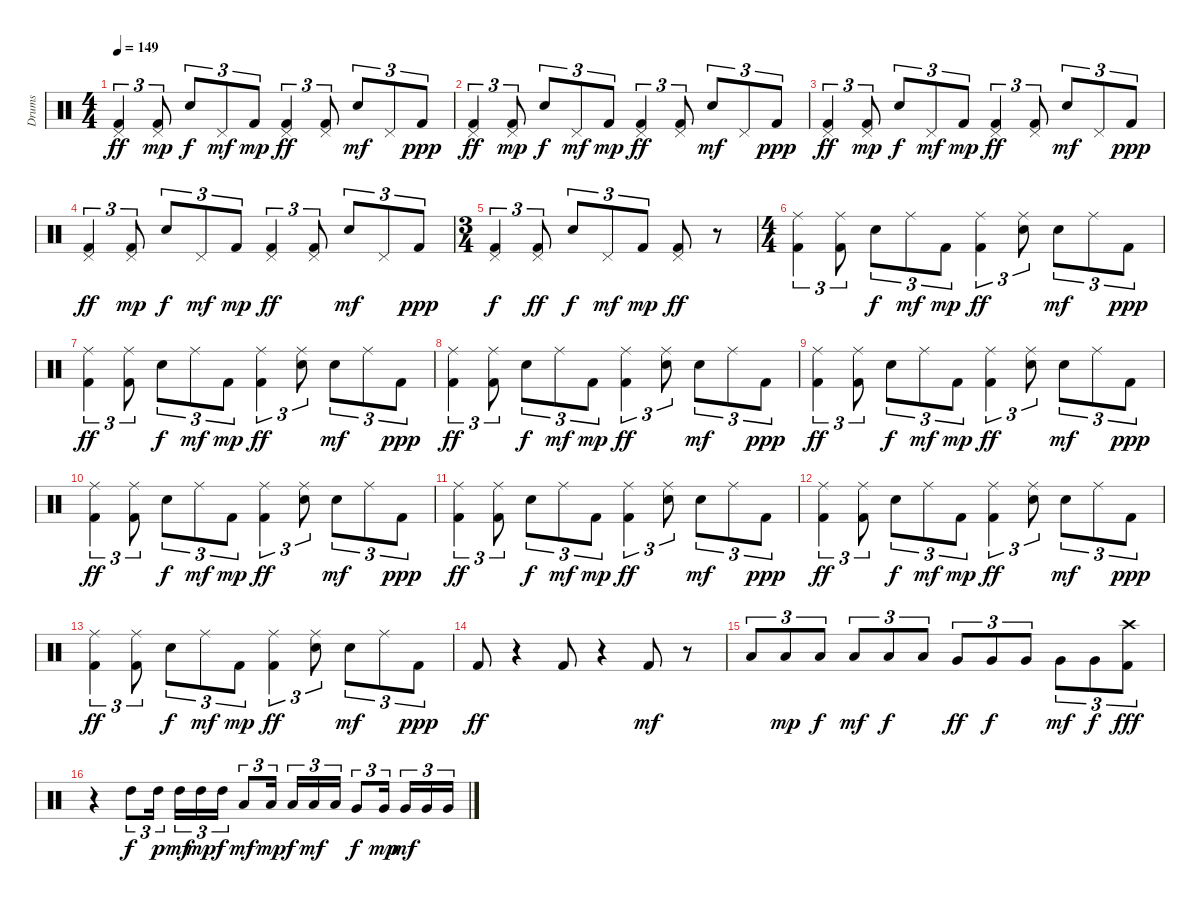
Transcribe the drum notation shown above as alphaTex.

\track ("Drums" "Drums") {instrument percussion}
\staff {score}
\articulation defaults
\ts (4 4)
\tempo 149
\clef neutral
\ks c
("Kick (hit) 2" "Pedal Hi-Hat (hit)").4{tu (3 2) dy ff} ("Kick (hit) 2" "Pedal Hi-Hat (hit)").8{tu (3 2) dy mp} "Snare (hit) 2".8{tu (3 2) dy f} "Pedal Hi-Hat (hit)".8{tu (3 2) dy mf} "Kick (hit) 2".8{tu (3 2) dy mp} ("Kick (hit) 2" "Pedal Hi-Hat (hit)").4{tu (3 2) dy ff} ("Kick (hit) 2" "Pedal Hi-Hat (hit)").8{tu (3 2)} "Snare (hit) 2".8{tu (3 2) dy mf} "Pedal Hi-Hat (hit)".8{tu (3 2)} "Kick (hit) 2".8{tu (3 2) dy ppp} |
("Kick (hit) 2" "Pedal Hi-Hat (hit)").4{tu (3 2) dy ff} ("Kick (hit) 2" "Pedal Hi-Hat (hit)").8{tu (3 2) dy mp} "Snare (hit) 2".8{tu (3 2) dy f} "Pedal Hi-Hat (hit)".8{tu (3 2) dy mf} "Kick (hit) 2".8{tu (3 2) dy mp} ("Kick (hit) 2" "Pedal Hi-Hat (hit)").4{tu (3 2) dy ff} ("Kick (hit) 2" "Pedal Hi-Hat (hit)").8{tu (3 2)} "Snare (hit) 2".8{tu (3 2) dy mf} "Pedal Hi-Hat (hit)".8{tu (3 2)} "Kick (hit) 2".8{tu (3 2) dy ppp} |
("Kick (hit) 2" "Pedal Hi-Hat (hit)").4{tu (3 2) dy ff} ("Kick (hit) 2" "Pedal Hi-Hat (hit)").8{tu (3 2) dy mp} "Snare (hit) 2".8{tu (3 2) dy f} "Pedal Hi-Hat (hit)".8{tu (3 2) dy mf} "Kick (hit) 2".8{tu (3 2) dy mp} ("Kick (hit) 2" "Pedal Hi-Hat (hit)").4{tu (3 2) dy ff} ("Kick (hit) 2" "Pedal Hi-Hat (hit)").8{tu (3 2)} "Snare (hit) 2".8{tu (3 2) dy mf} "Pedal Hi-Hat (hit)".8{tu (3 2)} "Kick (hit) 2".8{tu (3 2) dy ppp} |
("Kick (hit) 2" "Pedal Hi-Hat (hit)").4{tu (3 2) dy ff} ("Kick (hit) 2" "Pedal Hi-Hat (hit)").8{tu (3 2) dy mp} "Snare (hit) 2".8{tu (3 2) dy f} "Pedal Hi-Hat (hit)".8{tu (3 2) dy mf} "Kick (hit) 2".8{tu (3 2) dy mp} ("Kick (hit) 2" "Pedal Hi-Hat (hit)").4{tu (3 2) dy ff} ("Kick (hit) 2" "Pedal Hi-Hat (hit)").8{tu (3 2)} "Snare (hit) 2".8{tu (3 2) dy mf} "Pedal Hi-Hat (hit)".8{tu (3 2)} "Kick (hit) 2".8{tu (3 2) dy ppp} |
\ts (3 4)
("Kick (hit) 2" "Pedal Hi-Hat (hit)").4{tu (3 2) dy f} ("Kick (hit) 2" "Pedal Hi-Hat (hit)").8{tu (3 2) dy ff} "Snare (hit) 2".8{tu (3 2) dy f} "Pedal Hi-Hat (hit)".8{tu (3 2) dy mf} "Kick (hit) 2".8{tu (3 2) dy mp} ("Kick (hit) 2" "Pedal Hi-Hat (hit)").8{dy ff} r.8 |
\ts (4 4)
("Kick (hit) 2" "Ride (middle)").4{tu (3 2)} ("Kick (hit) 2" "Ride (middle)").8{tu (3 2)} "Snare (hit) 2".8{tu (3 2) dy f} "Ride (middle)".8{tu (3 2) dy mf} "Kick (hit) 2".8{tu (3 2) dy mp} ("Kick (hit) 2" "Ride (middle)").4{tu (3 2) dy ff} ("Snare (hit) 2" "Ride (middle)").8{tu (3 2)} "Snare (hit) 2".8{tu (3 2) dy mf} "Ride (middle)".8{tu (3 2)} "Kick (hit) 2".8{tu (3 2) dy ppp} |
("Kick (hit) 2" "Ride (middle)").4{tu (3 2) dy ff} ("Kick (hit) 2" "Ride (middle)").8{tu (3 2)} "Snare (hit) 2".8{tu (3 2) dy f} "Ride (middle)".8{tu (3 2) dy mf} "Kick (hit) 2".8{tu (3 2) dy mp} ("Kick (hit) 2" "Ride (middle)").4{tu (3 2) dy ff} ("Snare (hit) 2" "Ride (middle)").8{tu (3 2)} "Snare (hit) 2".8{tu (3 2) dy mf} "Ride (middle)".8{tu (3 2)} "Kick (hit) 2".8{tu (3 2) dy ppp} |
("Kick (hit) 2" "Ride (middle)").4{tu (3 2) dy ff} ("Kick (hit) 2" "Ride (middle)").8{tu (3 2)} "Snare (hit) 2".8{tu (3 2) dy f} "Ride (middle)".8{tu (3 2) dy mf} "Kick (hit) 2".8{tu (3 2) dy mp} ("Kick (hit) 2" "Ride (middle)").4{tu (3 2) dy ff} ("Snare (hit) 2" "Ride (middle)").8{tu (3 2)} "Snare (hit) 2".8{tu (3 2) dy mf} "Ride (middle)".8{tu (3 2)} "Kick (hit) 2".8{tu (3 2) dy ppp} |
("Kick (hit) 2" "Ride (middle)").4{tu (3 2) dy ff} ("Kick (hit) 2" "Ride (middle)").8{tu (3 2)} "Snare (hit) 2".8{tu (3 2) dy f} "Ride (middle)".8{tu (3 2) dy mf} "Kick (hit) 2".8{tu (3 2) dy mp} ("Kick (hit) 2" "Ride (middle)").4{tu (3 2) dy ff} ("Snare (hit) 2" "Ride (middle)").8{tu (3 2)} "Snare (hit) 2".8{tu (3 2) dy mf} "Ride (middle)".8{tu (3 2)} "Kick (hit) 2".8{tu (3 2) dy ppp} |
("Kick (hit) 2" "Ride (middle)").4{tu (3 2) dy ff} ("Kick (hit) 2" "Ride (middle)").8{tu (3 2)} "Snare (hit) 2".8{tu (3 2) dy f} "Ride (middle)".8{tu (3 2) dy mf} "Kick (hit) 2".8{tu (3 2) dy mp} ("Kick (hit) 2" "Ride (middle)").4{tu (3 2) dy ff} ("Snare (hit) 2" "Ride (middle)").8{tu (3 2)} "Snare (hit) 2".8{tu (3 2) dy mf} "Ride (middle)".8{tu (3 2)} "Kick (hit) 2".8{tu (3 2) dy ppp} |
("Kick (hit) 2" "Ride (middle)").4{tu (3 2) dy ff} ("Kick (hit) 2" "Ride (middle)").8{tu (3 2)} "Snare (hit) 2".8{tu (3 2) dy f} "Ride (middle)".8{tu (3 2) dy mf} "Kick (hit) 2".8{tu (3 2) dy mp} ("Kick (hit) 2" "Ride (middle)").4{tu (3 2) dy ff} ("Snare (hit) 2" "Ride (middle)").8{tu (3 2)} "Snare (hit) 2".8{tu (3 2) dy mf} "Ride (middle)".8{tu (3 2)} "Kick (hit) 2".8{tu (3 2) dy ppp} |
("Kick (hit) 2" "Ride (middle)").4{tu (3 2) dy ff} ("Kick (hit) 2" "Ride (middle)").8{tu (3 2)} "Snare (hit) 2".8{tu (3 2) dy f} "Ride (middle)".8{tu (3 2) dy mf} "Kick (hit) 2".8{tu (3 2) dy mp} ("Kick (hit) 2" "Ride (middle)").4{tu (3 2) dy ff} ("Snare (hit) 2" "Ride (middle)").8{tu (3 2)} "Snare (hit) 2".8{tu (3 2) dy mf} "Ride (middle)".8{tu (3 2)} "Kick (hit) 2".8{tu (3 2) dy ppp} |
("Kick (hit) 2" "Ride (middle)").4{tu (3 2) dy ff} ("Kick (hit) 2" "Ride (middle)").8{tu (3 2)} "Snare (hit) 2".8{tu (3 2) dy f} "Ride (middle)".8{tu (3 2) dy mf} "Kick (hit) 2".8{tu (3 2) dy mp} ("Kick (hit) 2" "Ride (middle)").4{tu (3 2) dy ff} ("Snare (hit) 2" "Ride (middle)").8{tu (3 2)} "Snare (hit) 2".8{tu (3 2) dy mf} "Ride (middle)".8{tu (3 2)} "Kick (hit) 2".8{tu (3 2) dy ppp} |
"Kick (hit) 2".8{dy ff} r.4 "Kick (hit) 2".8 r.4 "Kick (hit) 2".8{dy mf} r.8 |
"Low Tom (hit)".8{tu (3 2)} "Low Tom (hit)".8{tu (3 2) dy mp} "Low Tom (hit)".8{tu (3 2) dy f} "Low Tom (hit)".8{tu (3 2) dy mf} "Low Tom (hit)".8{tu (3 2) dy f} "Low Tom (hit)".8{tu (3 2)} "Very Low Tom (hit)".8{tu (3 2) dy ff} "Very Low Tom (hit)".8{tu (3 2) dy f} "Very Low Tom (hit)".8{tu (3 2)} "Very Low Tom (hit)".8{tu (3 2) dy mf} "Very Low Tom (hit)".8{tu (3 2) dy f} ("Kick (hit) 2" "Crash high (hit)").8{tu (3 2) dy fff} |
r.4 "High Tom (hit)".8{tu (3 2) dy f} "High Tom (hit)".16{tu (3 2) dy p} "High Tom (hit)".16{tu (3 2) dy mf} "High Tom (hit)".16{tu (3 2) dy mp} "High Tom (hit)".16{tu (3 2) dy f} "Low Tom (hit)".8{tu (3 2) dy mf} "Low Tom (hit)".16{tu (3 2) dy mp} "Low Tom (hit)".16{tu (3 2) dy f} "Low Tom (hit)".16{tu (3 2) dy mf} "Low Tom (hit)".16{tu (3 2)} "Very Low Tom (hit)".8{tu (3 2) dy f} "Very Low Tom (hit)".16{tu (3 2) dy mp} "Very Low Tom (hit)".16{tu (3 2) dy mf} "Very Low Tom (hit)".16{tu (3 2)} "Very Low Tom (hit)".16{tu (3 2)}
